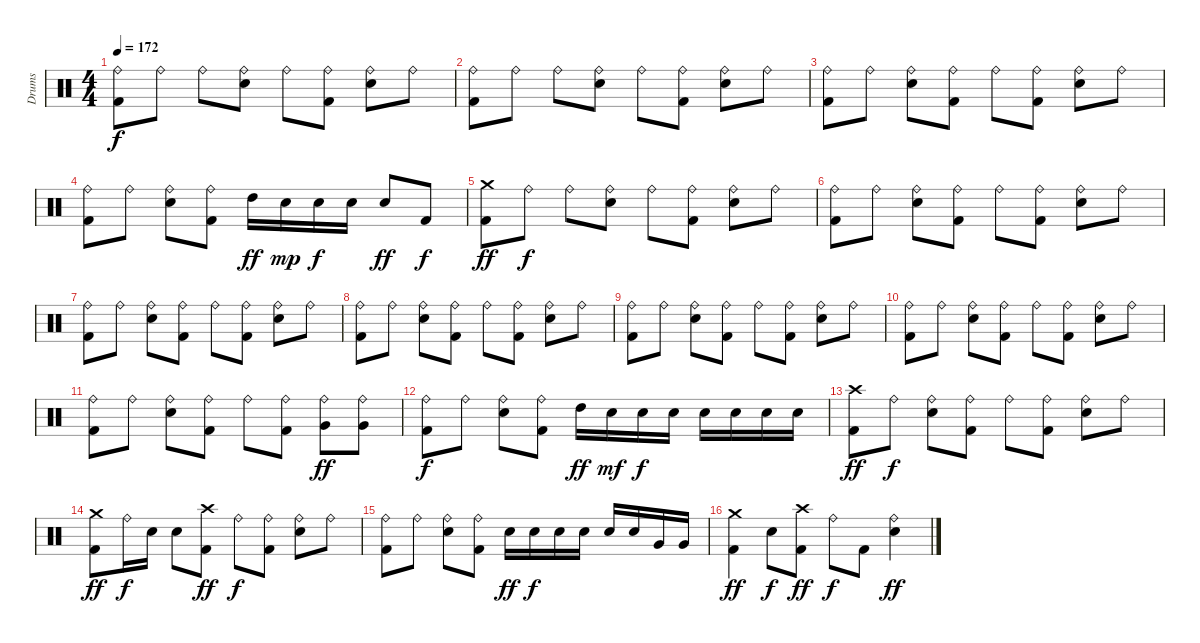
\track ("Drums" "Drums") {instrument percussion}
\staff {score}
\articulation defaults
\ts (4 4)
\tempo 172
\clef neutral
\ks c
("Ride (bell)" "Kick (hit) 2").8{dy f} "Ride (bell)".8 "Ride (bell)".8 ("Ride (bell)" "Electric Snare (hit)").8 "Ride (bell)".8 ("Ride (bell)" "Kick (hit) 2").8 ("Ride (bell)" "Electric Snare (hit)").8 "Ride (bell)".8 |
("Ride (bell)" "Kick (hit) 2").8 "Ride (bell)".8 "Ride (bell)".8 ("Ride (bell)" "Electric Snare (hit)").8 "Ride (bell)".8 ("Ride (bell)" "Kick (hit) 2").8 ("Ride (bell)" "Electric Snare (hit)").8 "Ride (bell)".8 |
("Ride (bell)" "Kick (hit) 2").8 "Ride (bell)".8 ("Ride (bell)" "Electric Snare (hit)").8 ("Ride (bell)" "Kick (hit) 2").8 "Ride (bell)".8 ("Ride (bell)" "Kick (hit) 2").8 ("Ride (bell)" "Electric Snare (hit)").8 "Ride (bell)".8 |
("Ride (bell)" "Kick (hit) 2").8 "Ride (bell)".8 ("Ride (bell)" "Electric Snare (hit)").8 ("Ride (bell)" "Kick (hit) 2").8 "High Tom (hit)".16{dy ff} "Electric Snare (hit)".16{dy mp} "Electric Snare (hit)".16{dy f} "Electric Snare (hit)".16 "Electric Snare (hit)".8{dy ff} "Kick (hit) 2".8{dy f} |
("Crash medium (hit)" "Kick (hit) 2").8{dy ff} "Ride (bell)".8{dy f} "Ride (bell)".8 ("Ride (bell)" "Electric Snare (hit)").8 "Ride (bell)".8 ("Ride (bell)" "Kick (hit) 2").8 ("Ride (bell)" "Electric Snare (hit)").8 "Ride (bell)".8 |
("Ride (bell)" "Kick (hit) 2").8 "Ride (bell)".8 ("Ride (bell)" "Electric Snare (hit)").8 ("Ride (bell)" "Kick (hit) 2").8 "Ride (bell)".8 ("Ride (bell)" "Kick (hit) 2").8 ("Ride (bell)" "Electric Snare (hit)").8 "Ride (bell)".8 |
("Ride (bell)" "Kick (hit) 2").8 "Ride (bell)".8 ("Ride (bell)" "Electric Snare (hit)").8 ("Ride (bell)" "Kick (hit) 2").8 "Ride (bell)".8 ("Ride (bell)" "Kick (hit) 2").8 ("Ride (bell)" "Electric Snare (hit)").8 "Ride (bell)".8 |
("Ride (bell)" "Kick (hit) 2").8 "Ride (bell)".8 ("Ride (bell)" "Electric Snare (hit)").8 ("Ride (bell)" "Kick (hit) 2").8 "Ride (bell)".8 ("Ride (bell)" "Kick (hit) 2").8 ("Ride (bell)" "Electric Snare (hit)").8 "Ride (bell)".8 |
("Ride (bell)" "Kick (hit) 2").8 "Ride (bell)".8 ("Ride (bell)" "Electric Snare (hit)").8 ("Ride (bell)" "Kick (hit) 2").8 "Ride (bell)".8 ("Ride (bell)" "Kick (hit) 2").8 ("Ride (bell)" "Electric Snare (hit)").8 "Ride (bell)".8 |
("Ride (bell)" "Kick (hit) 2").8 "Ride (bell)".8 ("Ride (bell)" "Electric Snare (hit)").8 ("Ride (bell)" "Kick (hit) 2").8 "Ride (bell)".8 ("Ride (bell)" "Kick (hit) 2").8 ("Ride (bell)" "Electric Snare (hit)").8 "Ride (bell)".8 |
("Ride (bell)" "Kick (hit) 2").8 "Ride (bell)".8 ("Ride (bell)" "Electric Snare (hit)").8 ("Ride (bell)" "Kick (hit) 2").8 "Ride (bell)".8 ("Ride (bell)" "Kick (hit) 2").8 ("Ride (bell)" "Very Low Tom (hit)").8{dy ff} ("Ride (bell)" "Very Low Tom (hit)").8 |
("Ride (bell)" "Kick (hit) 2").8{dy f} "Ride (bell)".8 ("Ride (bell)" "Electric Snare (hit)").8 ("Ride (bell)" "Kick (hit) 2").8 "High Tom (hit)".16{dy ff} "Electric Snare (hit)".16{dy mf} "Electric Snare (hit)".16{dy f} "Electric Snare (hit)".16 "Electric Snare (hit)".16 "Electric Snare (hit)".16 "Electric Snare (hit)".16 "Electric Snare (hit)".16 |
("Crash high (hit)" "Kick (hit) 2").8{dy ff} "Ride (bell)".8{dy f} ("Ride (bell)" "Electric Snare (hit)").8 ("Ride (bell)" "Kick (hit) 2").8 "Ride (bell)".8 ("Ride (bell)" "Kick (hit) 2").8 ("Ride (bell)" "Electric Snare (hit)").8 "Ride (bell)".8 |
("Crash medium (hit)" "Kick (hit) 2").8{dy ff} "Ride (bell)".16{dy f} "Electric Snare (hit)".16 "Electric Snare (hit)".8 ("Crash high (hit)" "Kick (hit) 2").8{dy ff} "Ride (bell)".8{dy f} ("Ride (bell)" "Kick (hit) 2").8 ("Ride (bell)" "Electric Snare (hit)").8 "Ride (bell)".8 |
("Ride (bell)" "Kick (hit) 2").8 "Ride (bell)".8 ("Ride (bell)" "Electric Snare (hit)").8 ("Ride (bell)" "Kick (hit) 2").8 "Electric Snare (hit)".16{dy ff} "Electric Snare (hit)".16{dy f} "Electric Snare (hit)".16 "Electric Snare (hit)".16 "Electric Snare (hit)".16 "Electric Snare (hit)".16 "Very Low Tom (hit)".16 "Very Low Tom (hit)".16 |
("Crash medium (hit)" "Kick (hit) 2").4{dy ff} "Electric Snare (hit)".8{dy f} ("Crash high (hit)" "Kick (hit) 2").8{dy ff} "Ride (bell)".8{dy f} "Kick (hit) 2".8 ("Ride (bell)" "Electric Snare (hit)").4{dy ff}
